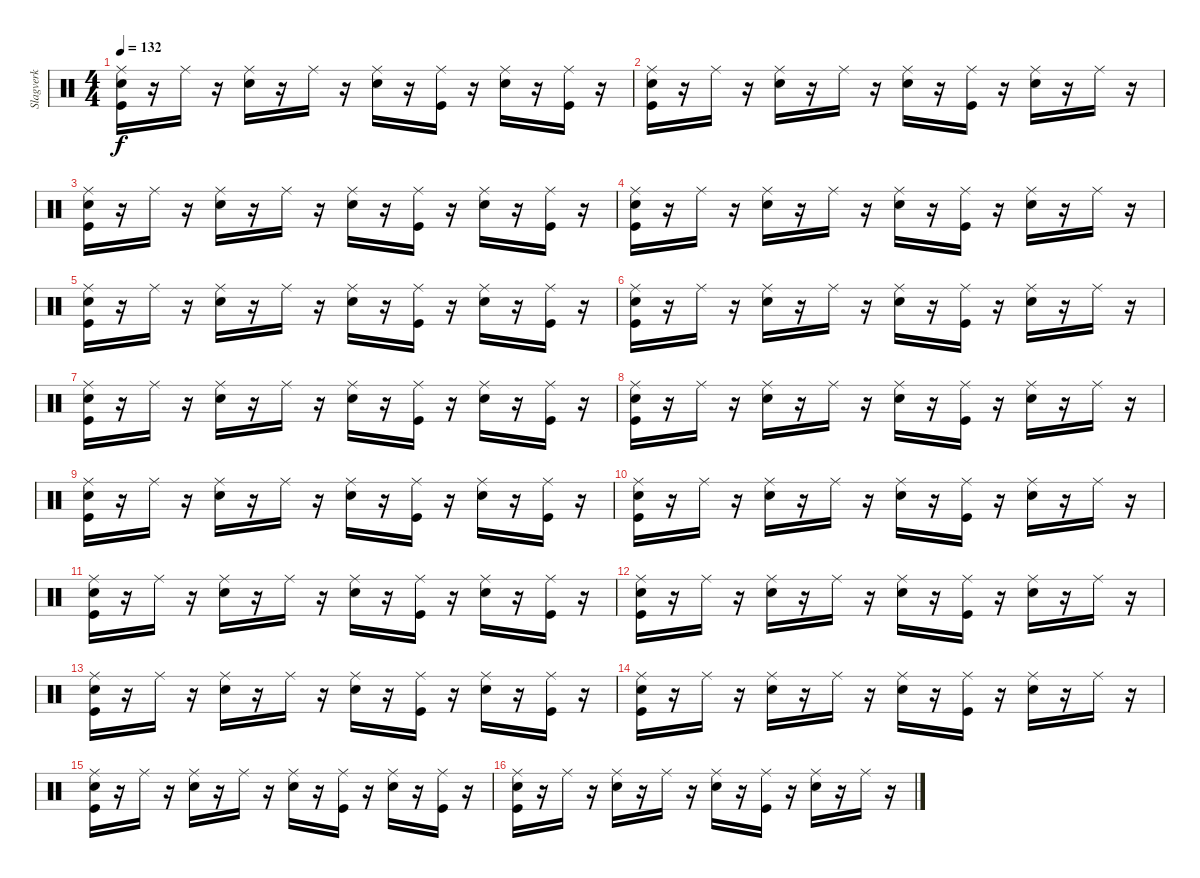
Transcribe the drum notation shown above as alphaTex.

\track ("Slagverk" "Slagverk") {instrument percussion}
\staff
\articulation defaults
\ts (4 4)
\tempo 132
\clef neutral
\ks c
("Ride (middle)" "Snare (hit) 2" "Kick (hit)").16{dy f} r.16 "Ride (middle)".16 r.16 ("Ride (middle)" "Snare (hit) 2").16 r.16 "Ride (middle)".16 r.16 ("Ride (middle)" "Snare (hit) 2").16 r.16 ("Ride (middle)" "Kick (hit)").16 r.16 ("Ride (middle)" "Snare (hit) 2").16 r.16 ("Ride (middle)" "Kick (hit)").16 r.16 |
("Ride (middle)" "Snare (hit) 2" "Kick (hit)").16 r.16 "Ride (middle)".16 r.16 ("Ride (middle)" "Snare (hit) 2").16 r.16 "Ride (middle)".16 r.16 ("Ride (middle)" "Snare (hit) 2").16 r.16 ("Ride (middle)" "Kick (hit)").16 r.16 ("Ride (middle)" "Snare (hit) 2").16 r.16 "Ride (middle)".16 r.16 |
("Ride (middle)" "Snare (hit) 2" "Kick (hit)").16 r.16 "Ride (middle)".16 r.16 ("Ride (middle)" "Snare (hit) 2").16 r.16 "Ride (middle)".16 r.16 ("Ride (middle)" "Snare (hit) 2").16 r.16 ("Ride (middle)" "Kick (hit)").16 r.16 ("Ride (middle)" "Snare (hit) 2").16 r.16 ("Ride (middle)" "Kick (hit)").16 r.16 |
("Ride (middle)" "Snare (hit) 2" "Kick (hit)").16 r.16 "Ride (middle)".16 r.16 ("Ride (middle)" "Snare (hit) 2").16 r.16 "Ride (middle)".16 r.16 ("Ride (middle)" "Snare (hit) 2").16 r.16 ("Ride (middle)" "Kick (hit)").16 r.16 ("Ride (middle)" "Snare (hit) 2").16 r.16 "Ride (middle)".16 r.16 |
("Ride (middle)" "Snare (hit) 2" "Kick (hit)").16 r.16 "Ride (middle)".16 r.16 ("Ride (middle)" "Snare (hit) 2").16 r.16 "Ride (middle)".16 r.16 ("Ride (middle)" "Snare (hit) 2").16 r.16 ("Ride (middle)" "Kick (hit)").16 r.16 ("Ride (middle)" "Snare (hit) 2").16 r.16 ("Ride (middle)" "Kick (hit)").16 r.16 |
("Ride (middle)" "Snare (hit) 2" "Kick (hit)").16 r.16 "Ride (middle)".16 r.16 ("Ride (middle)" "Snare (hit) 2").16 r.16 "Ride (middle)".16 r.16 ("Ride (middle)" "Snare (hit) 2").16 r.16 ("Ride (middle)" "Kick (hit)").16 r.16 ("Ride (middle)" "Snare (hit) 2").16 r.16 "Ride (middle)".16 r.16 |
("Ride (middle)" "Snare (hit) 2" "Kick (hit)").16 r.16 "Ride (middle)".16 r.16 ("Ride (middle)" "Snare (hit) 2").16 r.16 "Ride (middle)".16 r.16 ("Ride (middle)" "Snare (hit) 2").16 r.16 ("Ride (middle)" "Kick (hit)").16 r.16 ("Ride (middle)" "Snare (hit) 2").16 r.16 ("Ride (middle)" "Kick (hit)").16 r.16 |
("Ride (middle)" "Snare (hit) 2" "Kick (hit)").16 r.16 "Ride (middle)".16 r.16 ("Ride (middle)" "Snare (hit) 2").16 r.16 "Ride (middle)".16 r.16 ("Ride (middle)" "Snare (hit) 2").16 r.16 ("Ride (middle)" "Kick (hit)").16 r.16 ("Ride (middle)" "Snare (hit) 2").16 r.16 "Ride (middle)".16 r.16 |
("Ride (middle)" "Snare (hit) 2" "Kick (hit)").16 r.16 "Ride (middle)".16 r.16 ("Ride (middle)" "Snare (hit) 2").16 r.16 "Ride (middle)".16 r.16 ("Ride (middle)" "Snare (hit) 2").16 r.16 ("Ride (middle)" "Kick (hit)").16 r.16 ("Ride (middle)" "Snare (hit) 2").16 r.16 ("Ride (middle)" "Kick (hit)").16 r.16 |
("Ride (middle)" "Snare (hit) 2" "Kick (hit)").16 r.16 "Ride (middle)".16 r.16 ("Ride (middle)" "Snare (hit) 2").16 r.16 "Ride (middle)".16 r.16 ("Ride (middle)" "Snare (hit) 2").16 r.16 ("Ride (middle)" "Kick (hit)").16 r.16 ("Ride (middle)" "Snare (hit) 2").16 r.16 "Ride (middle)".16 r.16 |
("Ride (middle)" "Snare (hit) 2" "Kick (hit)").16 r.16 "Ride (middle)".16 r.16 ("Ride (middle)" "Snare (hit) 2").16 r.16 "Ride (middle)".16 r.16 ("Ride (middle)" "Snare (hit) 2").16 r.16 ("Ride (middle)" "Kick (hit)").16 r.16 ("Ride (middle)" "Snare (hit) 2").16 r.16 ("Ride (middle)" "Kick (hit)").16 r.16 |
("Ride (middle)" "Snare (hit) 2" "Kick (hit)").16 r.16 "Ride (middle)".16 r.16 ("Ride (middle)" "Snare (hit) 2").16 r.16 "Ride (middle)".16 r.16 ("Ride (middle)" "Snare (hit) 2").16 r.16 ("Ride (middle)" "Kick (hit)").16 r.16 ("Ride (middle)" "Snare (hit) 2").16 r.16 "Ride (middle)".16 r.16 |
("Ride (middle)" "Snare (hit) 2" "Kick (hit)").16 r.16 "Ride (middle)".16 r.16 ("Ride (middle)" "Snare (hit) 2").16 r.16 "Ride (middle)".16 r.16 ("Ride (middle)" "Snare (hit) 2").16 r.16 ("Ride (middle)" "Kick (hit)").16 r.16 ("Ride (middle)" "Snare (hit) 2").16 r.16 ("Ride (middle)" "Kick (hit)").16 r.16 |
("Ride (middle)" "Snare (hit) 2" "Kick (hit)").16 r.16 "Ride (middle)".16 r.16 ("Ride (middle)" "Snare (hit) 2").16 r.16 "Ride (middle)".16 r.16 ("Ride (middle)" "Snare (hit) 2").16 r.16 ("Ride (middle)" "Kick (hit)").16 r.16 ("Ride (middle)" "Snare (hit) 2").16 r.16 "Ride (middle)".16 r.16 |
("Ride (middle)" "Snare (hit) 2" "Kick (hit)").16 r.16 "Ride (middle)".16 r.16 ("Ride (middle)" "Snare (hit) 2").16 r.16 "Ride (middle)".16 r.16 ("Ride (middle)" "Snare (hit) 2").16 r.16 ("Ride (middle)" "Kick (hit)").16 r.16 ("Ride (middle)" "Snare (hit) 2").16 r.16 ("Ride (middle)" "Kick (hit)").16 r.16 |
("Ride (middle)" "Snare (hit) 2" "Kick (hit)").16 r.16 "Ride (middle)".16 r.16 ("Ride (middle)" "Snare (hit) 2").16 r.16 "Ride (middle)".16 r.16 ("Ride (middle)" "Snare (hit) 2").16 r.16 ("Ride (middle)" "Kick (hit)").16 r.16 ("Ride (middle)" "Snare (hit) 2").16 r.16 "Ride (middle)".16 r.16
